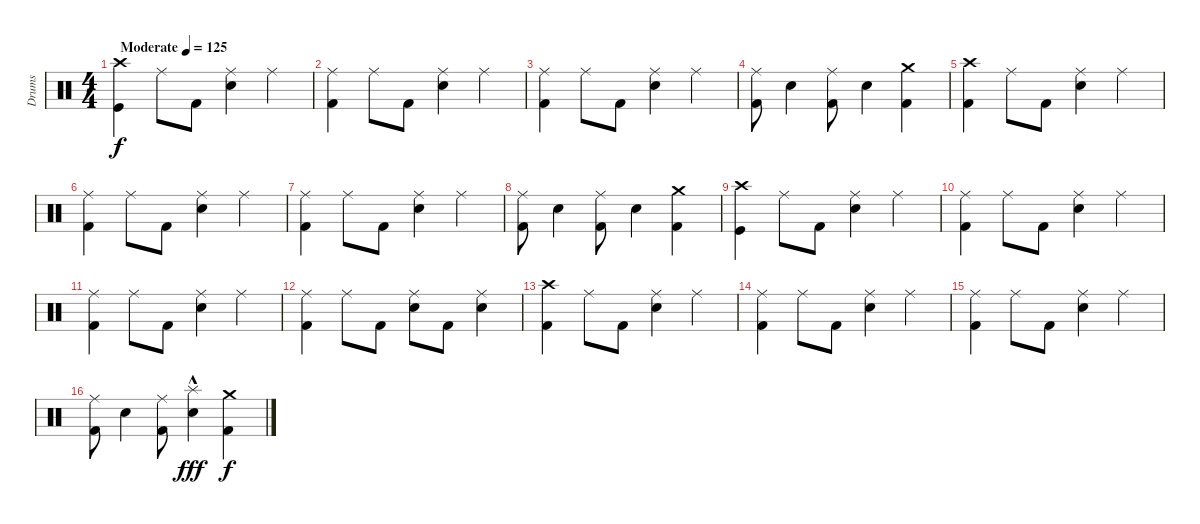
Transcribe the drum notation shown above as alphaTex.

\track ("Drums" "Drums") {instrument percussion}
\staff {score}
\articulation defaults
\ts (4 4)
\tempo (125 "Moderate")
\clef neutral
\ks c
("Crash high (hit)" "Kick (hit)").4{dy f} "Ride (middle)".8 "Kick (hit) 2".8 ("Ride (middle)" "Electric Snare (hit)").4 "Ride (middle)".4 |
("Ride (middle)" "Kick (hit) 2").4 "Ride (middle)".8 "Kick (hit) 2".8 ("Ride (middle)" "Electric Snare (hit)").4 "Ride (middle)".4 |
("Ride (middle)" "Kick (hit) 2").4 "Ride (middle)".8 "Kick (hit) 2".8 ("Ride (middle)" "Electric Snare (hit)").4 "Ride (middle)".4 |
("Ride (middle)" "Kick (hit) 2").8 "Electric Snare (hit)".4 ("Ride (middle)" "Kick (hit) 2").8 "Electric Snare (hit)".4 ("Crash medium (hit)" "Kick (hit) 2").4 |
("Crash high (hit)" "Kick (hit) 2").4 "Ride (middle)".8 "Kick (hit) 2".8 ("Ride (middle)" "Electric Snare (hit)").4 "Ride (middle)".4 |
("Ride (middle)" "Kick (hit) 2").4 "Ride (middle)".8 "Kick (hit) 2".8 ("Ride (middle)" "Electric Snare (hit)").4 "Ride (middle)".4 |
("Ride (middle)" "Kick (hit) 2").4 "Ride (middle)".8 "Kick (hit) 2".8 ("Ride (middle)" "Electric Snare (hit)").4 "Ride (middle)".4 |
("Ride (middle)" "Kick (hit) 2").8 "Electric Snare (hit)".4 ("Ride (middle)" "Kick (hit) 2").8 "Electric Snare (hit)".4 ("Crash medium (hit)" "Kick (hit) 2").4 |
("Crash high (hit)" "Kick (hit)").4 "Ride (middle)".8 "Kick (hit) 2".8 ("Ride (middle)" "Electric Snare (hit)").4 "Ride (middle)".4 |
("Ride (middle)" "Kick (hit) 2").4 "Ride (middle)".8 "Kick (hit) 2".8 ("Ride (middle)" "Electric Snare (hit)").4 "Ride (middle)".4 |
("Ride (middle)" "Kick (hit) 2").4 "Ride (middle)".8 "Kick (hit) 2".8 ("Ride (middle)" "Electric Snare (hit)").4 "Ride (middle)".4 |
("Ride (middle)" "Kick (hit) 2").4 "Ride (middle)".8 "Kick (hit) 2".8 ("Ride (middle)" "Electric Snare (hit)").8 "Kick (hit) 2".8 ("Ride (middle)" "Electric Snare (hit)").4 |
("Crash high (hit)" "Kick (hit) 2").4 "Ride (middle)".8 "Kick (hit) 2".8 ("Ride (middle)" "Electric Snare (hit)").4 "Ride (middle)".4 |
("Ride (middle)" "Kick (hit) 2").4 "Ride (middle)".8 "Kick (hit) 2".8 ("Ride (middle)" "Electric Snare (hit)").4 "Ride (middle)".4 |
("Ride (middle)" "Kick (hit) 2").4 "Ride (middle)".8 "Kick (hit) 2".8 ("Ride (middle)" "Electric Snare (hit)").4 "Ride (middle)".4 |
("Ride (middle)" "Kick (hit) 2").8 "Electric Snare (hit)".4 ("Ride (middle)" "Kick (hit) 2").8 ("Splash (hit)"{hac} "Electric Snare (hit)").4{dy fff} ("Crash medium (hit)" "Kick (hit) 2").4{dy f}
